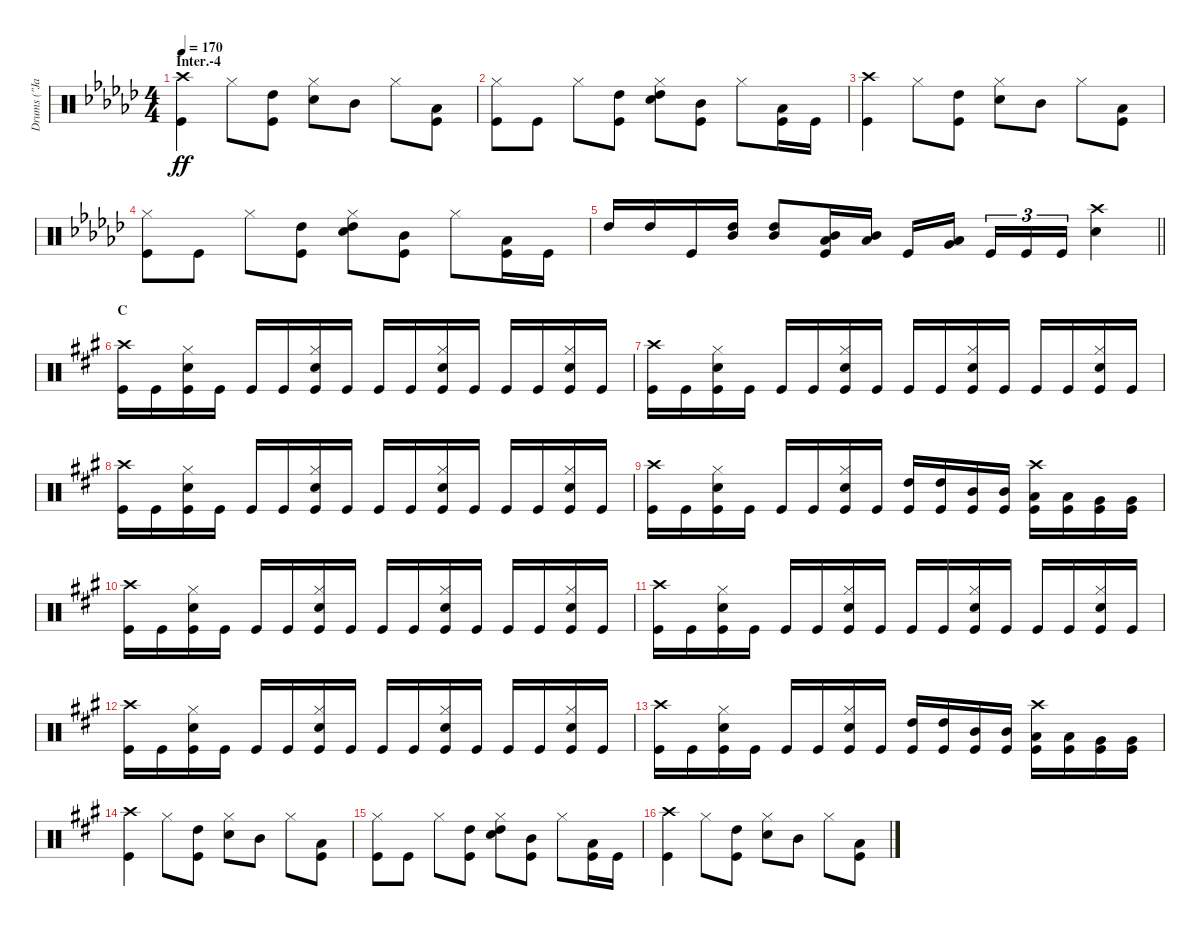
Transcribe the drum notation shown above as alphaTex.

\track ("Drums (\"Jane\")" "Drums (\"Ja") {instrument percussion}
\staff {score}
\articulation defaults
\ts (4 4)
\section ("" "Inter.-4")
\tempo 170
\clef neutral
\ks gb
("Crash high (hit)" "Kick (hit)").4{dy ff} "Hi-Hat (closed)".8 ("High Tom (hit)" "Kick (hit)").8 ("Hi-Hat (closed)" "Snare (hit) 2").8 "Mid Tom (hit)".8 "Hi-Hat (closed)".8 ("Low Tom (hit)" "Kick (hit)").8 |
("Hi-Hat (closed)" "Kick (hit)").8 "Kick (hit)".8 "Hi-Hat (closed)".8 ("High Tom (hit)" "Kick (hit)").8 ("Hi-Hat (closed)" "Snare (hit) 2" "High Tom (hit)").8 ("Mid Tom (hit)" "Kick (hit)").8 "Hi-Hat (closed)".8 ("Low Tom (hit)" "Kick (hit)").16 "Kick (hit)".16 |
("Crash high (hit)" "Kick (hit)").4 "Hi-Hat (closed)".8 ("High Tom (hit)" "Kick (hit)").8 ("Hi-Hat (closed)" "Snare (hit) 2").8 "Mid Tom (hit)".8 "Hi-Hat (closed)".8 ("Low Tom (hit)" "Kick (hit)").8 |
("Hi-Hat (closed)" "Kick (hit)").8 "Kick (hit)".8 "Hi-Hat (closed)".8 ("High Tom (hit)" "Kick (hit)").8 ("Hi-Hat (closed)" "Snare (hit) 2" "High Tom (hit)").8 ("Mid Tom (hit)" "Kick (hit)").8 "Hi-Hat (closed)".8 ("Low Tom (hit)" "Kick (hit)").16 "Kick (hit)".16 |
\barLineRight lightlight "High Tom (hit)".16 "High Tom (hit)".16 "Kick (hit)".16
("High Tom (hit)" "Mid Tom (hit)").16 ("High Tom (hit)" "Mid Tom (hit)").8 ("Low Tom (hit)" "Mid Tom (hit)" "Kick (hit)").16 ("Low Tom (hit)" "Mid Tom (hit)").16 "Kick (hit)".16 ("Low Tom (hit)" "Very Low Tom (hit)").16{beam splitsecondary} "Kick (hit)".16{tu (3 2)} "Kick (hit)".16{tu (3 2)} "Kick (hit)".16{tu (3 2)} ("Crash high (hit)" "Snare (hit) 2").4 |
\section ("" "C")
\ks a
("Crash high (hit)" "Kick (hit)").16 "Kick (hit)".16 ("Hi-Hat (closed)" "Snare (hit) 2" "Kick (hit)").16 "Kick (hit)".16 "Kick (hit)".16 "Kick (hit)".16 ("Hi-Hat (closed)" "Snare (hit) 2" "Kick (hit)").16 "Kick (hit)".16 "Kick (hit)".16 "Kick (hit)".16 ("Hi-Hat (closed)" "Snare (hit) 2" "Kick (hit)").16 "Kick (hit)".16 "Kick (hit)".16 "Kick (hit)".16 ("Hi-Hat (closed)" "Snare (hit) 2" "Kick (hit)").16 "Kick (hit)".16 |
("Crash high (hit)" "Kick (hit)").16 "Kick (hit)".16 ("Hi-Hat (closed)" "Snare (hit) 2" "Kick (hit)").16 "Kick (hit)".16 "Kick (hit)".16 "Kick (hit)".16 ("Hi-Hat (closed)" "Snare (hit) 2" "Kick (hit)").16 "Kick (hit)".16 "Kick (hit)".16 "Kick (hit)".16 ("Hi-Hat (closed)" "Snare (hit) 2" "Kick (hit)").16 "Kick (hit)".16 "Kick (hit)".16 "Kick (hit)".16 ("Hi-Hat (closed)" "Snare (hit) 2" "Kick (hit)").16 "Kick (hit)".16 |
("Crash high (hit)" "Kick (hit)").16 "Kick (hit)".16 ("Hi-Hat (closed)" "Snare (hit) 2" "Kick (hit)").16 "Kick (hit)".16 "Kick (hit)".16 "Kick (hit)".16 ("Hi-Hat (closed)" "Snare (hit) 2" "Kick (hit)").16 "Kick (hit)".16 "Kick (hit)".16 "Kick (hit)".16 ("Hi-Hat (closed)" "Snare (hit) 2" "Kick (hit)").16 "Kick (hit)".16 "Kick (hit)".16 "Kick (hit)".16 ("Hi-Hat (closed)" "Snare (hit) 2" "Kick (hit)").16 "Kick (hit)".16 |
("Crash high (hit)" "Kick (hit)").16 "Kick (hit)".16 ("Hi-Hat (closed)" "Snare (hit) 2" "Kick (hit)").16 "Kick (hit)".16 "Kick (hit)".16 "Kick (hit)".16 ("Hi-Hat (closed)" "Snare (hit) 2" "Kick (hit)").16 "Kick (hit)".16 ("High Tom (hit)" "Kick (hit)").16 ("High Tom (hit)" "Kick (hit)").16 ("Mid Tom (hit)" "Kick (hit)").16 ("Mid Tom (hit)" "Kick (hit)").16 ("Crash high (hit)" "Low Tom (hit)" "Kick (hit)").16 ("Low Tom (hit)" "Kick (hit)").16 ("Very Low Tom (hit)" "Kick (hit)").16 ("Very Low Tom (hit)" "Kick (hit)").16 |
("Crash high (hit)" "Kick (hit)").16 "Kick (hit)".16 ("Hi-Hat (closed)" "Snare (hit) 2" "Kick (hit)").16 "Kick (hit)".16 "Kick (hit)".16 "Kick (hit)".16 ("Hi-Hat (closed)" "Snare (hit) 2" "Kick (hit)").16 "Kick (hit)".16 "Kick (hit)".16 "Kick (hit)".16 ("Hi-Hat (closed)" "Snare (hit) 2" "Kick (hit)").16 "Kick (hit)".16 "Kick (hit)".16 "Kick (hit)".16 ("Hi-Hat (closed)" "Snare (hit) 2" "Kick (hit)").16 "Kick (hit)".16 |
("Crash high (hit)" "Kick (hit)").16 "Kick (hit)".16 ("Hi-Hat (closed)" "Snare (hit) 2" "Kick (hit)").16 "Kick (hit)".16 "Kick (hit)".16 "Kick (hit)".16 ("Hi-Hat (closed)" "Snare (hit) 2" "Kick (hit)").16 "Kick (hit)".16 "Kick (hit)".16 "Kick (hit)".16 ("Hi-Hat (closed)" "Snare (hit) 2" "Kick (hit)").16 "Kick (hit)".16 "Kick (hit)".16 "Kick (hit)".16 ("Hi-Hat (closed)" "Snare (hit) 2" "Kick (hit)").16 "Kick (hit)".16 |
("Crash high (hit)" "Kick (hit)").16 "Kick (hit)".16 ("Hi-Hat (closed)" "Snare (hit) 2" "Kick (hit)").16 "Kick (hit)".16 "Kick (hit)".16 "Kick (hit)".16 ("Hi-Hat (closed)" "Snare (hit) 2" "Kick (hit)").16 "Kick (hit)".16 "Kick (hit)".16 "Kick (hit)".16 ("Hi-Hat (closed)" "Snare (hit) 2" "Kick (hit)").16 "Kick (hit)".16 "Kick (hit)".16 "Kick (hit)".16 ("Hi-Hat (closed)" "Snare (hit) 2" "Kick (hit)").16 "Kick (hit)".16 |
("Crash high (hit)" "Kick (hit)").16 "Kick (hit)".16 ("Hi-Hat (closed)" "Snare (hit) 2" "Kick (hit)").16 "Kick (hit)".16 "Kick (hit)".16 "Kick (hit)".16 ("Hi-Hat (closed)" "Snare (hit) 2" "Kick (hit)").16 "Kick (hit)".16 ("High Tom (hit)" "Kick (hit)").16 ("High Tom (hit)" "Kick (hit)").16 ("Mid Tom (hit)" "Kick (hit)").16 ("Mid Tom (hit)" "Kick (hit)").16 ("Crash high (hit)" "Low Tom (hit)" "Kick (hit)").16 ("Low Tom (hit)" "Kick (hit)").16 ("Very Low Tom (hit)" "Kick (hit)").16 ("Very Low Tom (hit)" "Kick (hit)").16 |
("Crash high (hit)" "Kick (hit)").4 "Hi-Hat (closed)".8 ("High Tom (hit)" "Kick (hit)").8 ("Hi-Hat (closed)" "Snare (hit) 2").8 "Mid Tom (hit)".8 "Hi-Hat (closed)".8 ("Low Tom (hit)" "Kick (hit)").8 |
("Hi-Hat (closed)" "Kick (hit)").8 "Kick (hit)".8 "Hi-Hat (closed)".8 ("High Tom (hit)" "Kick (hit)").8 ("Hi-Hat (closed)" "Snare (hit) 2" "High Tom (hit)").8 ("Mid Tom (hit)" "Kick (hit)").8 "Hi-Hat (closed)".8 ("Low Tom (hit)" "Kick (hit)").16 "Kick (hit)".16 |
("Crash high (hit)" "Kick (hit)").4 "Hi-Hat (closed)".8 ("High Tom (hit)" "Kick (hit)").8 ("Hi-Hat (closed)" "Snare (hit) 2").8 "Mid Tom (hit)".8 "Hi-Hat (closed)".8 ("Low Tom (hit)" "Kick (hit)").8
